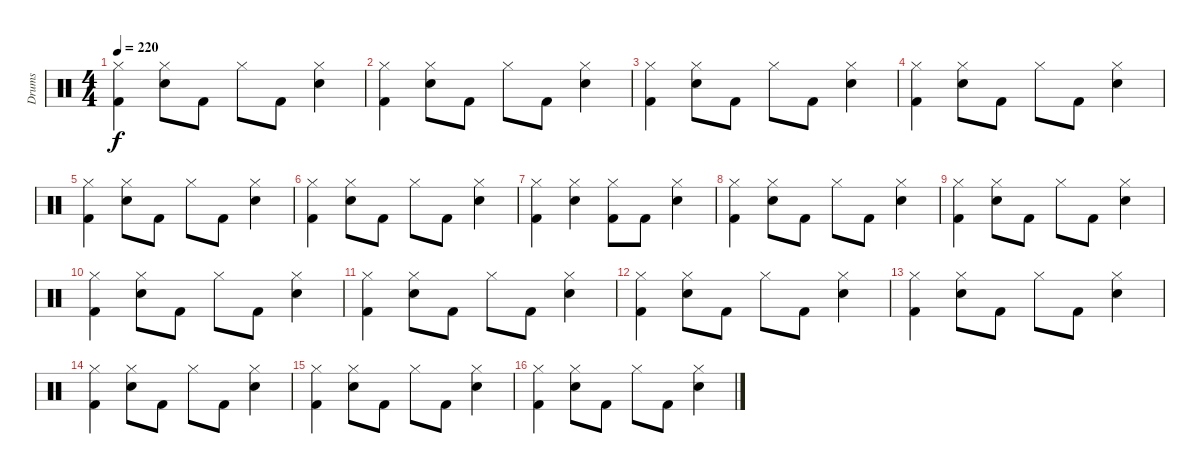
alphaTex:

\track ("Drums" "Drums") {instrument percussion}
\staff {score}
\articulation defaults
\ts (4 4)
\tempo 220
\clef neutral
\ks aminor
("Kick (hit) 2" "Hi-Hat (closed)").4{dy f} ("Snare (hit) 2" "Hi-Hat (closed)").8 "Kick (hit) 2".8 "Hi-Hat (closed)".8 "Kick (hit) 2".8 ("Snare (hit) 2" "Hi-Hat (closed)").4 |
("Kick (hit) 2" "Hi-Hat (closed)").4 ("Snare (hit) 2" "Hi-Hat (closed)").8 "Kick (hit) 2".8 "Hi-Hat (closed)".8 "Kick (hit) 2".8 ("Snare (hit) 2" "Hi-Hat (closed)").4 |
("Kick (hit) 2" "Hi-Hat (closed)").4 ("Snare (hit) 2" "Hi-Hat (closed)").8 "Kick (hit) 2".8 "Hi-Hat (closed)".8 "Kick (hit) 2".8 ("Snare (hit) 2" "Hi-Hat (closed)").4 |
("Kick (hit) 2" "Hi-Hat (closed)").4 ("Snare (hit) 2" "Hi-Hat (closed)").8 "Kick (hit) 2".8 "Hi-Hat (closed)".8 "Kick (hit) 2".8 ("Snare (hit) 2" "Hi-Hat (closed)").4 |
("Kick (hit) 2" "Hi-Hat (closed)").4 ("Snare (hit) 2" "Hi-Hat (closed)").8 "Kick (hit) 2".8 "Hi-Hat (closed)".8 "Kick (hit) 2".8 ("Snare (hit) 2" "Hi-Hat (closed)").4 |
("Kick (hit) 2" "Hi-Hat (closed)").4 ("Snare (hit) 2" "Hi-Hat (closed)").8 "Kick (hit) 2".8 "Hi-Hat (closed)".8 "Kick (hit) 2".8 ("Snare (hit) 2" "Hi-Hat (closed)").4 |
("Kick (hit) 2" "Hi-Hat (closed)").4 ("Snare (hit) 2" "Hi-Hat (closed)").4 ("Kick (hit) 2" "Hi-Hat (closed)").8 "Kick (hit) 2".8 ("Snare (hit) 2" "Hi-Hat (closed)").4 |
("Kick (hit) 2" "Hi-Hat (closed)").4 ("Snare (hit) 2" "Hi-Hat (closed)").8 "Kick (hit) 2".8 "Hi-Hat (closed)".8 "Kick (hit) 2".8 ("Snare (hit) 2" "Hi-Hat (closed)").4 |
("Kick (hit) 2" "Hi-Hat (closed)").4 ("Snare (hit) 2" "Hi-Hat (closed)").8 "Kick (hit) 2".8 "Hi-Hat (closed)".8 "Kick (hit) 2".8 ("Snare (hit) 2" "Hi-Hat (closed)").4 |
("Kick (hit) 2" "Hi-Hat (closed)").4 ("Snare (hit) 2" "Hi-Hat (closed)").8 "Kick (hit) 2".8 "Hi-Hat (closed)".8 "Kick (hit) 2".8 ("Snare (hit) 2" "Hi-Hat (closed)").4 |
("Kick (hit) 2" "Hi-Hat (closed)").4 ("Snare (hit) 2" "Hi-Hat (closed)").8 "Kick (hit) 2".8 "Hi-Hat (closed)".8 "Kick (hit) 2".8 ("Snare (hit) 2" "Hi-Hat (closed)").4 |
("Kick (hit) 2" "Hi-Hat (closed)").4 ("Snare (hit) 2" "Hi-Hat (closed)").8 "Kick (hit) 2".8 "Hi-Hat (closed)".8 "Kick (hit) 2".8 ("Snare (hit) 2" "Hi-Hat (closed)").4 |
("Kick (hit) 2" "Hi-Hat (closed)").4 ("Snare (hit) 2" "Hi-Hat (closed)").8 "Kick (hit) 2".8 "Hi-Hat (closed)".8 "Kick (hit) 2".8 ("Snare (hit) 2" "Hi-Hat (closed)").4 |
("Kick (hit) 2" "Hi-Hat (closed)").4 ("Snare (hit) 2" "Hi-Hat (closed)").8 "Kick (hit) 2".8 "Hi-Hat (closed)".8 "Kick (hit) 2".8 ("Snare (hit) 2" "Hi-Hat (closed)").4 |
("Kick (hit) 2" "Hi-Hat (closed)").4 ("Snare (hit) 2" "Hi-Hat (closed)").8 "Kick (hit) 2".8 "Hi-Hat (closed)".8 "Kick (hit) 2".8 ("Snare (hit) 2" "Hi-Hat (closed)").4 |
("Kick (hit) 2" "Hi-Hat (closed)").4 ("Snare (hit) 2" "Hi-Hat (closed)").8 "Kick (hit) 2".8 "Hi-Hat (closed)".8 "Kick (hit) 2".8 ("Snare (hit) 2" "Hi-Hat (closed)").4
